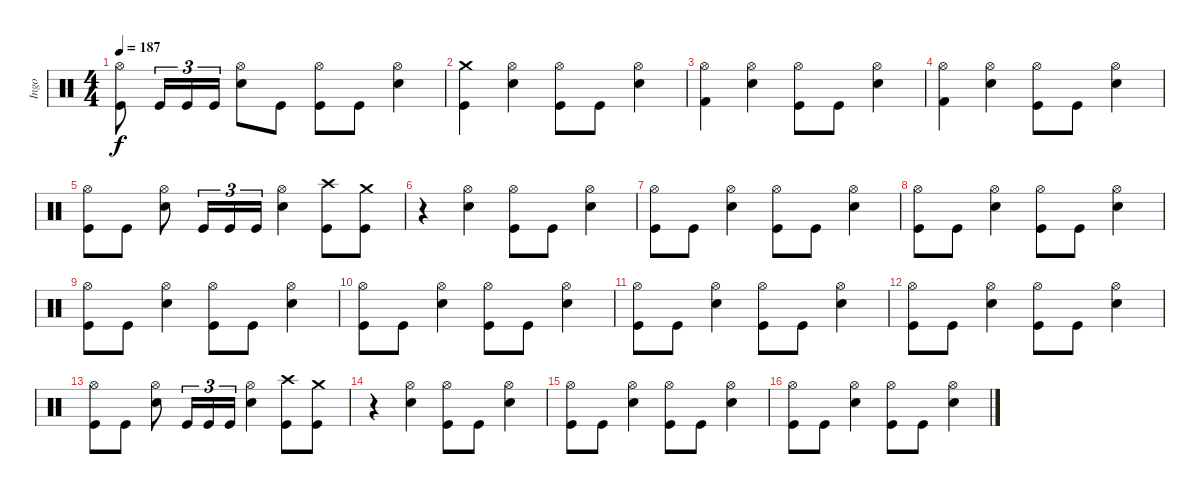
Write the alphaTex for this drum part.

\track ("Ingo" "Ingo") {instrument percussion}
\staff {score}
\articulation defaults
\ts (4 4)
\tempo 187
\clef neutral
\ks c
("Hi-Hat (open)" "Kick (hit)").8{dy f} "Kick (hit)".16{tu (3 2)} "Kick (hit)".16{tu (3 2)} "Kick (hit)".16{tu (3 2)} ("Hi-Hat (open)" "Snare (hit) 2").8 "Kick (hit)".8 ("Hi-Hat (open)" "Kick (hit)").8 "Kick (hit)".8 ("Hi-Hat (open)" "Snare (hit) 2").4 |
("Crash medium (hit)" "Kick (hit)").4 ("Hi-Hat (open)" "Snare (hit) 2").4 ("Hi-Hat (open)" "Kick (hit)").8 "Kick (hit)".8 ("Hi-Hat (open)" "Snare (hit) 2").4 |
("Hi-Hat (open)" "Kick (hit) 2").4 ("Hi-Hat (open)" "Snare (hit) 2").4 ("Hi-Hat (open)" "Kick (hit)").8 "Kick (hit)".8 ("Hi-Hat (open)" "Snare (hit) 2").4 |
("Hi-Hat (open)" "Kick (hit) 2").4 ("Hi-Hat (open)" "Snare (hit) 2").4 ("Hi-Hat (open)" "Kick (hit)").8 "Kick (hit)".8 ("Hi-Hat (open)" "Snare (hit) 2").4 |
("Hi-Hat (open)" "Kick (hit)").8 "Kick (hit)".8 ("Hi-Hat (open)" "Snare (hit) 2").8 "Kick (hit)".16{tu (3 2)} "Kick (hit)".16{tu (3 2)} "Kick (hit)".16{tu (3 2)} ("Hi-Hat (open)" "Snare (hit) 2").4 ("Crash high (hit)" "Kick (hit)").8 ("Crash medium (hit)" "Kick (hit)").8 |
r.4 ("Hi-Hat (open)" "Snare (hit) 2").4 ("Hi-Hat (open)" "Kick (hit)").8 "Kick (hit)".8 ("Hi-Hat (open)" "Snare (hit) 2").4 |
("Hi-Hat (open)" "Kick (hit)").8 "Kick (hit)".8 ("Hi-Hat (open)" "Snare (hit) 2").4 ("Hi-Hat (open)" "Kick (hit)").8 "Kick (hit)".8 ("Hi-Hat (open)" "Snare (hit) 2").4 |
("Hi-Hat (open)" "Kick (hit)").8 "Kick (hit)".8 ("Hi-Hat (open)" "Snare (hit) 2").4 ("Hi-Hat (open)" "Kick (hit)").8 "Kick (hit)".8 ("Hi-Hat (open)" "Snare (hit) 2").4 |
("Hi-Hat (open)" "Kick (hit)").8 "Kick (hit)".8 ("Hi-Hat (open)" "Snare (hit) 2").4 ("Hi-Hat (open)" "Kick (hit)").8 "Kick (hit)".8 ("Hi-Hat (open)" "Snare (hit) 2").4 |
("Hi-Hat (open)" "Kick (hit)").8 "Kick (hit)".8 ("Hi-Hat (open)" "Snare (hit) 2").4 ("Hi-Hat (open)" "Kick (hit)").8 "Kick (hit)".8 ("Hi-Hat (open)" "Snare (hit) 2").4 |
("Hi-Hat (open)" "Kick (hit)").8 "Kick (hit)".8 ("Hi-Hat (open)" "Snare (hit) 2").4 ("Hi-Hat (open)" "Kick (hit)").8 "Kick (hit)".8 ("Hi-Hat (open)" "Snare (hit) 2").4 |
("Hi-Hat (open)" "Kick (hit)").8 "Kick (hit)".8 ("Hi-Hat (open)" "Snare (hit) 2").4 ("Hi-Hat (open)" "Kick (hit)").8 "Kick (hit)".8 ("Hi-Hat (open)" "Snare (hit) 2").4 |
("Hi-Hat (open)" "Kick (hit)").8 "Kick (hit)".8 ("Hi-Hat (open)" "Snare (hit) 2").8 "Kick (hit)".16{tu (3 2)} "Kick (hit)".16{tu (3 2)} "Kick (hit)".16{tu (3 2)} ("Hi-Hat (open)" "Snare (hit) 2").4 ("Crash high (hit)" "Kick (hit)").8 ("Crash medium (hit)" "Kick (hit)").8 |
r.4 ("Hi-Hat (open)" "Snare (hit) 2").4 ("Hi-Hat (open)" "Kick (hit)").8 "Kick (hit)".8 ("Hi-Hat (open)" "Snare (hit) 2").4 |
("Hi-Hat (open)" "Kick (hit)").8 "Kick (hit)".8 ("Hi-Hat (open)" "Snare (hit) 2").4 ("Hi-Hat (open)" "Kick (hit)").8 "Kick (hit)".8 ("Hi-Hat (open)" "Snare (hit) 2").4 |
("Hi-Hat (open)" "Kick (hit)").8 "Kick (hit)".8 ("Hi-Hat (open)" "Snare (hit) 2").4 ("Hi-Hat (open)" "Kick (hit)").8 "Kick (hit)".8 ("Hi-Hat (open)" "Snare (hit) 2").4
